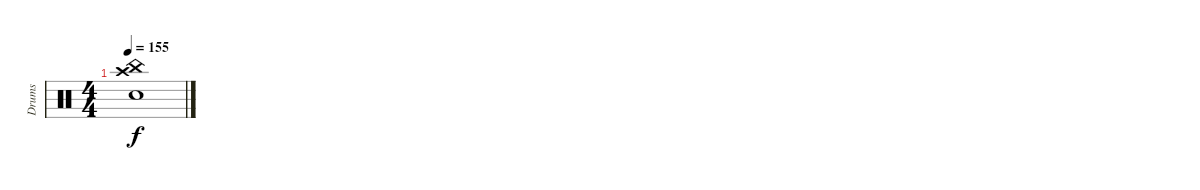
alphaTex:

\track ("Drums" "Drums") {instrument percussion}
\staff {score}
\articulation defaults
\ts (4 4)
\tempo 155
\clef neutral
\ks c
("Crash high (hit)" "China (hit)" "Electric Snare (hit)").1{dy f}
